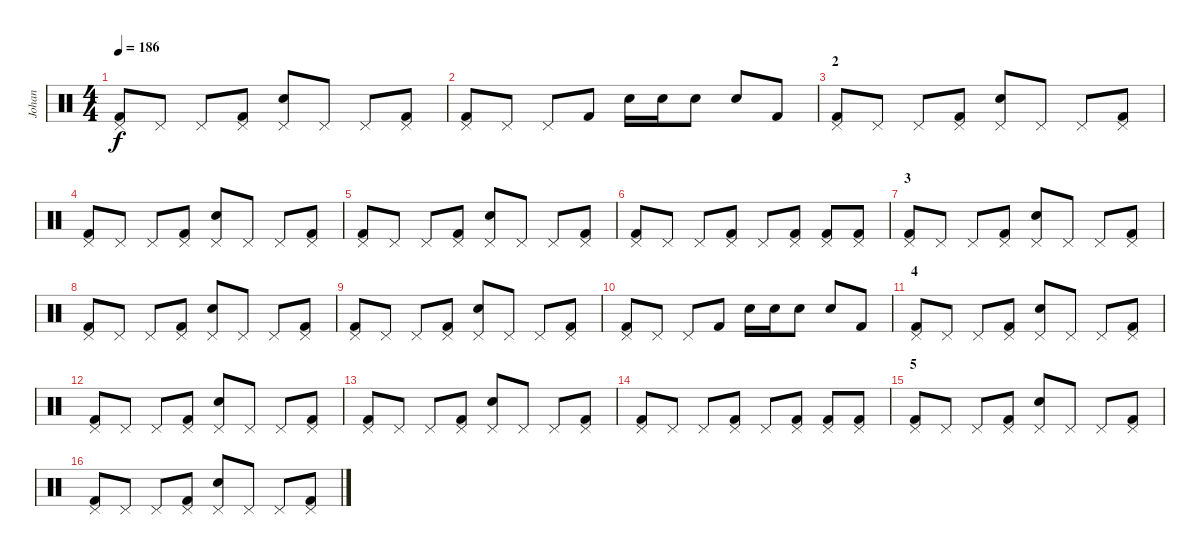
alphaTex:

\track ("Johan" "Johan") {instrument percussion}
\staff {score}
\articulation defaults
\ts (4 4)
\tempo 186
\clef neutral
\ks c
("Pedal Hi-Hat (hit)" "Kick (hit) 2").8{dy f} "Pedal Hi-Hat (hit)".8 "Pedal Hi-Hat (hit)".8 ("Pedal Hi-Hat (hit)" "Kick (hit) 2").8 ("Pedal Hi-Hat (hit)" "Snare (hit) 2").8 "Pedal Hi-Hat (hit)".8 "Pedal Hi-Hat (hit)".8 ("Pedal Hi-Hat (hit)" "Kick (hit) 2").8 |
("Pedal Hi-Hat (hit)" "Kick (hit) 2").8 "Pedal Hi-Hat (hit)".8 "Pedal Hi-Hat (hit)".8 "Kick (hit) 2".8 "Snare (hit) 2".16 "Snare (hit) 2".16 "Snare (hit) 2".8 "Snare (hit) 2".8 "Kick (hit) 2".8 |
\section ("" "2")
("Pedal Hi-Hat (hit)" "Kick (hit) 2").8 "Pedal Hi-Hat (hit)".8 "Pedal Hi-Hat (hit)".8 ("Pedal Hi-Hat (hit)" "Kick (hit) 2").8 ("Pedal Hi-Hat (hit)" "Snare (hit) 2").8 "Pedal Hi-Hat (hit)".8 "Pedal Hi-Hat (hit)".8 ("Pedal Hi-Hat (hit)" "Kick (hit) 2").8 |
("Pedal Hi-Hat (hit)" "Kick (hit) 2").8 "Pedal Hi-Hat (hit)".8 "Pedal Hi-Hat (hit)".8 ("Pedal Hi-Hat (hit)" "Kick (hit) 2").8 ("Pedal Hi-Hat (hit)" "Snare (hit) 2").8 "Pedal Hi-Hat (hit)".8 "Pedal Hi-Hat (hit)".8 ("Pedal Hi-Hat (hit)" "Kick (hit) 2").8 |
("Pedal Hi-Hat (hit)" "Kick (hit) 2").8 "Pedal Hi-Hat (hit)".8 "Pedal Hi-Hat (hit)".8 ("Pedal Hi-Hat (hit)" "Kick (hit) 2").8 ("Pedal Hi-Hat (hit)" "Snare (hit) 2").8 "Pedal Hi-Hat (hit)".8 "Pedal Hi-Hat (hit)".8 ("Pedal Hi-Hat (hit)" "Kick (hit) 2").8 |
("Pedal Hi-Hat (hit)" "Kick (hit) 2").8 "Pedal Hi-Hat (hit)".8 "Pedal Hi-Hat (hit)".8 ("Pedal Hi-Hat (hit)" "Kick (hit) 2").8 "Pedal Hi-Hat (hit)".8 ("Pedal Hi-Hat (hit)" "Kick (hit) 2").8 ("Pedal Hi-Hat (hit)" "Kick (hit) 2").8 ("Pedal Hi-Hat (hit)" "Kick (hit) 2").8 |
\section ("" "3")
("Pedal Hi-Hat (hit)" "Kick (hit) 2").8 "Pedal Hi-Hat (hit)".8 "Pedal Hi-Hat (hit)".8 ("Pedal Hi-Hat (hit)" "Kick (hit) 2").8 ("Pedal Hi-Hat (hit)" "Snare (hit) 2").8 "Pedal Hi-Hat (hit)".8 "Pedal Hi-Hat (hit)".8 ("Pedal Hi-Hat (hit)" "Kick (hit) 2").8 |
("Pedal Hi-Hat (hit)" "Kick (hit) 2").8 "Pedal Hi-Hat (hit)".8 "Pedal Hi-Hat (hit)".8 ("Pedal Hi-Hat (hit)" "Kick (hit) 2").8 ("Pedal Hi-Hat (hit)" "Snare (hit) 2").8 "Pedal Hi-Hat (hit)".8 "Pedal Hi-Hat (hit)".8 ("Pedal Hi-Hat (hit)" "Kick (hit) 2").8 |
("Pedal Hi-Hat (hit)" "Kick (hit) 2").8 "Pedal Hi-Hat (hit)".8 "Pedal Hi-Hat (hit)".8 ("Pedal Hi-Hat (hit)" "Kick (hit) 2").8 ("Pedal Hi-Hat (hit)" "Snare (hit) 2").8 "Pedal Hi-Hat (hit)".8 "Pedal Hi-Hat (hit)".8 ("Pedal Hi-Hat (hit)" "Kick (hit) 2").8 |
("Pedal Hi-Hat (hit)" "Kick (hit) 2").8 "Pedal Hi-Hat (hit)".8 "Pedal Hi-Hat (hit)".8 "Kick (hit) 2".8 "Snare (hit) 2".16 "Snare (hit) 2".16 "Snare (hit) 2".8 "Snare (hit) 2".8 "Kick (hit) 2".8 |
\section ("" "4")
("Pedal Hi-Hat (hit)" "Kick (hit) 2").8 "Pedal Hi-Hat (hit)".8 "Pedal Hi-Hat (hit)".8 ("Pedal Hi-Hat (hit)" "Kick (hit) 2").8 ("Pedal Hi-Hat (hit)" "Snare (hit) 2").8 "Pedal Hi-Hat (hit)".8 "Pedal Hi-Hat (hit)".8 ("Pedal Hi-Hat (hit)" "Kick (hit) 2").8 |
("Pedal Hi-Hat (hit)" "Kick (hit) 2").8 "Pedal Hi-Hat (hit)".8 "Pedal Hi-Hat (hit)".8 ("Pedal Hi-Hat (hit)" "Kick (hit) 2").8 ("Pedal Hi-Hat (hit)" "Snare (hit) 2").8 "Pedal Hi-Hat (hit)".8 "Pedal Hi-Hat (hit)".8 ("Pedal Hi-Hat (hit)" "Kick (hit) 2").8 |
("Pedal Hi-Hat (hit)" "Kick (hit) 2").8 "Pedal Hi-Hat (hit)".8 "Pedal Hi-Hat (hit)".8 ("Pedal Hi-Hat (hit)" "Kick (hit) 2").8 ("Pedal Hi-Hat (hit)" "Snare (hit) 2").8 "Pedal Hi-Hat (hit)".8 "Pedal Hi-Hat (hit)".8 ("Pedal Hi-Hat (hit)" "Kick (hit) 2").8 |
("Pedal Hi-Hat (hit)" "Kick (hit) 2").8 "Pedal Hi-Hat (hit)".8 "Pedal Hi-Hat (hit)".8 ("Pedal Hi-Hat (hit)" "Kick (hit) 2").8 "Pedal Hi-Hat (hit)".8 ("Pedal Hi-Hat (hit)" "Kick (hit) 2").8 ("Pedal Hi-Hat (hit)" "Kick (hit) 2").8 ("Pedal Hi-Hat (hit)" "Kick (hit) 2").8 |
\section ("" "5")
("Pedal Hi-Hat (hit)" "Kick (hit) 2").8 "Pedal Hi-Hat (hit)".8 "Pedal Hi-Hat (hit)".8 ("Pedal Hi-Hat (hit)" "Kick (hit) 2").8 ("Pedal Hi-Hat (hit)" "Snare (hit) 2").8 "Pedal Hi-Hat (hit)".8 "Pedal Hi-Hat (hit)".8 ("Pedal Hi-Hat (hit)" "Kick (hit) 2").8 |
("Pedal Hi-Hat (hit)" "Kick (hit) 2").8 "Pedal Hi-Hat (hit)".8 "Pedal Hi-Hat (hit)".8 ("Pedal Hi-Hat (hit)" "Kick (hit) 2").8 ("Pedal Hi-Hat (hit)" "Snare (hit) 2").8 "Pedal Hi-Hat (hit)".8 "Pedal Hi-Hat (hit)".8 ("Pedal Hi-Hat (hit)" "Kick (hit) 2").8
